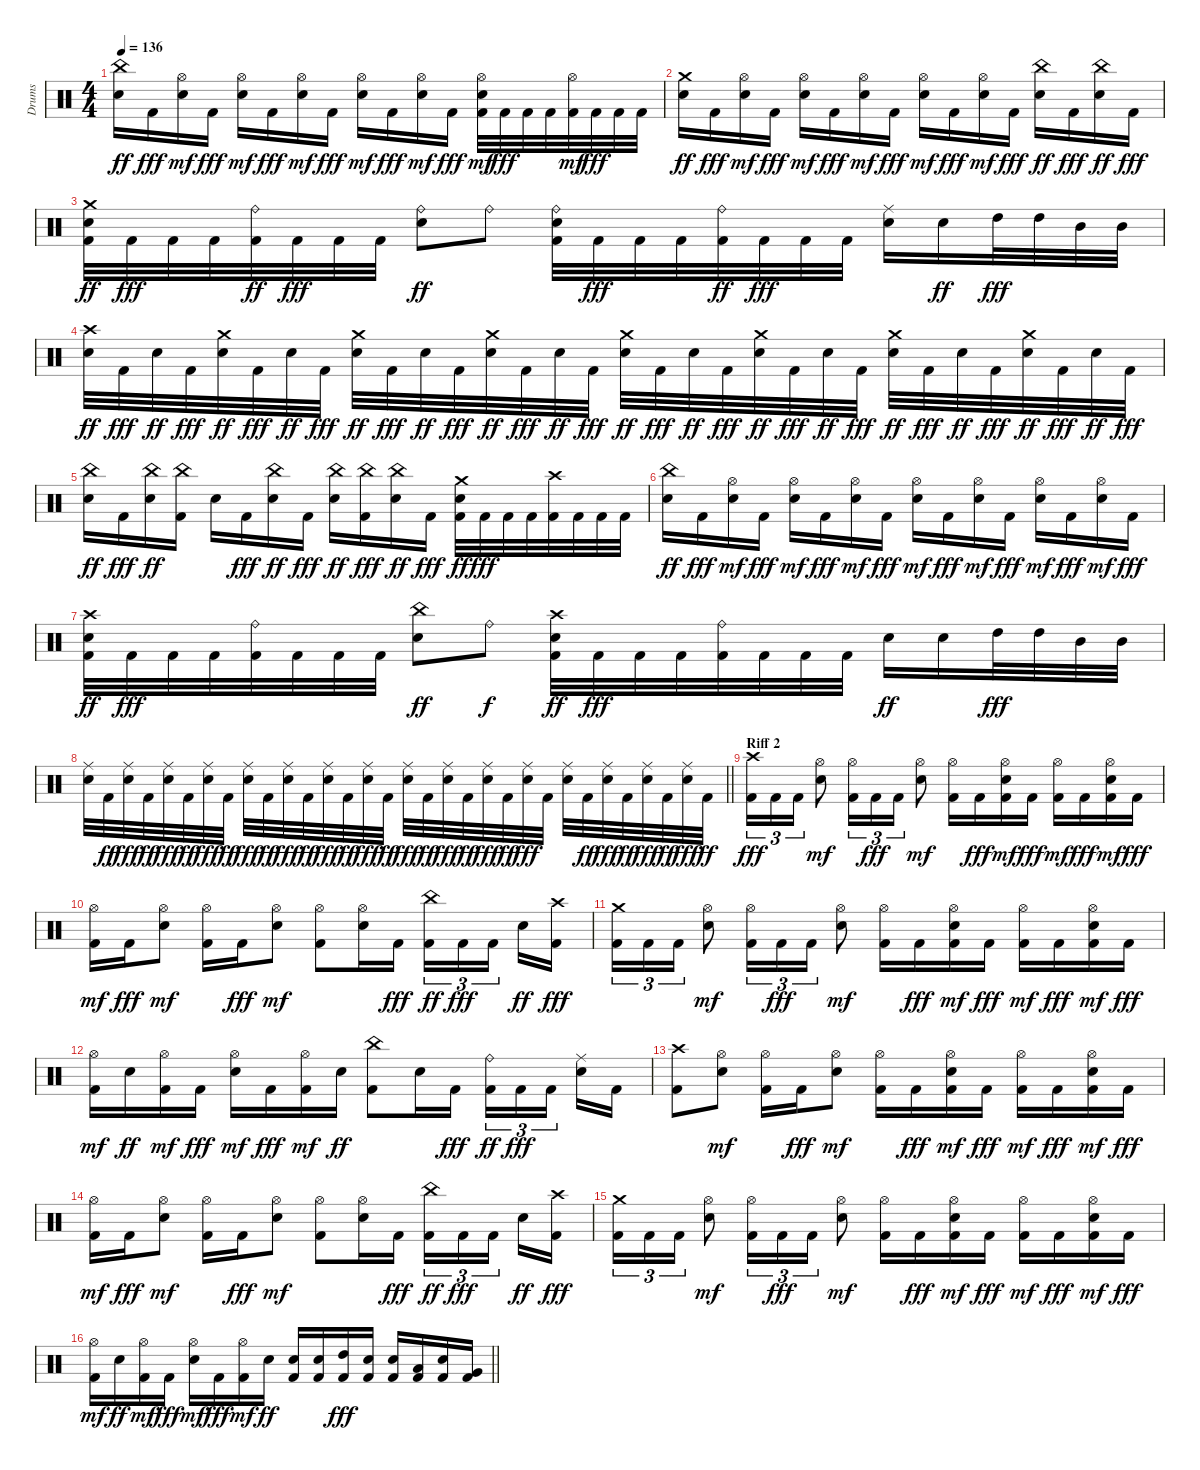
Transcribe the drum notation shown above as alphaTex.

\track ("Drums" "Drums") {instrument percussion}
\staff {score}
\articulation defaults
\ts (4 4)
\tempo 136
\clef neutral
\ks c
("Snare (hit) 2" "China (hit)").16{dy ff} "Kick (hit) 2".16{dy fff} ("Snare (hit) 2" "Hi-Hat (open)").16{dy mf} "Kick (hit) 2".16{dy fff} ("Snare (hit) 2" "Hi-Hat (open)").16{dy mf} "Kick (hit) 2".16{dy fff} ("Snare (hit) 2" "Hi-Hat (open)").16{dy mf} "Kick (hit) 2".16{dy fff} ("Snare (hit) 2" "Hi-Hat (open)").16{dy mf} "Kick (hit) 2".16{dy fff} ("Snare (hit) 2" "Hi-Hat (open)").16{dy mf} "Kick (hit) 2".16{dy fff} ("Kick (hit) 2" "Snare (hit) 2" "Hi-Hat (open)").32{dy mf} "Kick (hit) 2".32{dy fff} "Kick (hit) 2".32 "Kick (hit) 2".32 ("Kick (hit) 2" "Hi-Hat (open)").32{dy mf} "Kick (hit) 2".32{dy fff} "Kick (hit) 2".32 "Kick (hit) 2".32 |
("Snare (hit) 2" "Crash medium (hit)").16{dy ff} "Kick (hit) 2".16{dy fff} ("Snare (hit) 2" "Hi-Hat (open)").16{dy mf} "Kick (hit) 2".16{dy fff} ("Snare (hit) 2" "Hi-Hat (open)").16{dy mf} "Kick (hit) 2".16{dy fff} ("Snare (hit) 2" "Hi-Hat (open)").16{dy mf} "Kick (hit) 2".16{dy fff} ("Snare (hit) 2" "Hi-Hat (open)").16{dy mf} "Kick (hit) 2".16{dy fff} ("Snare (hit) 2" "Hi-Hat (open)").16{dy mf} "Kick (hit) 2".16{dy fff} ("Snare (hit) 2" "China (hit)").16{dy ff} "Kick (hit) 2".16{dy fff} ("Snare (hit) 2" "China (hit)").16{dy ff} "Kick (hit) 2".16{dy fff} |
("Kick (hit) 2" "Snare (hit) 2" "Crash medium (hit)").32{dy ff} "Kick (hit) 2".32{dy fff} "Kick (hit) 2".32 "Kick (hit) 2".32 ("Kick (hit) 2" "Ride (bell)").32{dy ff} "Kick (hit) 2".32{dy fff} "Kick (hit) 2".32 "Kick (hit) 2".32 ("Snare (hit) 2" "Ride (bell)").8{dy ff} "Ride (bell)".8 ("Kick (hit) 2" "Snare (hit) 2" "Ride (bell)").32 "Kick (hit) 2".32{dy fff} "Kick (hit) 2".32 "Kick (hit) 2".32 ("Kick (hit) 2" "Ride (bell)").32{dy ff} "Kick (hit) 2".32{dy fff} "Kick (hit) 2".32 "Kick (hit) 2".32 ("Snare (hit) 2" "Ride (middle)").16 "Snare (hit) 2".16{dy ff} "High Tom (hit)".32{dy fff} "High Tom (hit)".32 "Mid Tom (hit)".32 "Mid Tom (hit)".32 |
("Snare (hit) 2" "Crash high (hit)").32{dy ff} "Kick (hit) 2".32{dy fff} "Snare (hit) 2".32{dy ff} "Kick (hit) 2".32{dy fff} ("Snare (hit) 2" "Crash medium (hit)").32{dy ff} "Kick (hit) 2".32{dy fff} "Snare (hit) 2".32{dy ff} "Kick (hit) 2".32{dy fff} ("Snare (hit) 2" "Crash medium (hit)").32{dy ff} "Kick (hit) 2".32{dy fff} "Snare (hit) 2".32{dy ff} "Kick (hit) 2".32{dy fff} ("Snare (hit) 2" "Crash medium (hit)").32{dy ff} "Kick (hit) 2".32{dy fff} "Snare (hit) 2".32{dy ff} "Kick (hit) 2".32{dy fff} ("Snare (hit) 2" "Crash medium (hit)").32{dy ff} "Kick (hit) 2".32{dy fff} "Snare (hit) 2".32{dy ff} "Kick (hit) 2".32{dy fff} ("Snare (hit) 2" "Crash medium (hit)").32{dy ff} "Kick (hit) 2".32{dy fff} "Snare (hit) 2".32{dy ff} "Kick (hit) 2".32{dy fff} ("Snare (hit) 2" "Crash medium (hit)").32{dy ff} "Kick (hit) 2".32{dy fff} "Snare (hit) 2".32{dy ff} "Kick (hit) 2".32{dy fff} ("Snare (hit) 2" "Crash medium (hit)").32{dy ff} "Kick (hit) 2".32{dy fff} "Snare (hit) 2".32{dy ff} "Kick (hit) 2".32{dy fff} |
("Snare (hit) 2" "China (hit)").16{dy ff} "Kick (hit) 2".16{dy fff} ("Snare (hit) 2" "China (hit)").16{dy ff} ("Kick (hit) 2" "China (hit)").16 "Snare (hit) 2".16 "Kick (hit) 2".16{dy fff} ("Snare (hit) 2" "China (hit)").16{dy ff} "Kick (hit) 2".16{dy fff} ("Snare (hit) 2" "China (hit)").16{dy ff} ("Kick (hit) 2" "China (hit)").16{dy fff} ("Snare (hit) 2" "China (hit)").16{dy ff} "Kick (hit) 2".16{dy fff} ("Kick (hit) 2" "Snare (hit) 2" "Crash medium (hit)").32{dy ff} "Kick (hit) 2".32{dy fff} "Kick (hit) 2".32 "Kick (hit) 2".32 ("Kick (hit) 2" "Crash high (hit)").32 "Kick (hit) 2".32 "Kick (hit) 2".32 "Kick (hit) 2".32 |
("Snare (hit) 2" "China (hit)").16{dy ff} "Kick (hit) 2".16{dy fff} ("Snare (hit) 2" "Hi-Hat (open)").16{dy mf} "Kick (hit) 2".16{dy fff} ("Snare (hit) 2" "Hi-Hat (open)").16{dy mf} "Kick (hit) 2".16{dy fff} ("Snare (hit) 2" "Hi-Hat (open)").16{dy mf} "Kick (hit) 2".16{dy fff} ("Snare (hit) 2" "Hi-Hat (open)").16{dy mf} "Kick (hit) 2".16{dy fff} ("Snare (hit) 2" "Hi-Hat (open)").16{dy mf} "Kick (hit) 2".16{dy fff} ("Snare (hit) 2" "Hi-Hat (open)").16{dy mf} "Kick (hit) 2".16{dy fff} ("Snare (hit) 2" "Hi-Hat (open)").16{dy mf} "Kick (hit) 2".16{dy fff} |
("Kick (hit) 2" "Snare (hit) 2" "Crash high (hit)").32{dy ff} "Kick (hit) 2".32{dy fff} "Kick (hit) 2".32 "Kick (hit) 2".32 ("Kick (hit) 2" "Ride (bell)").32 "Kick (hit) 2".32 "Kick (hit) 2".32 "Kick (hit) 2".32 ("Snare (hit) 2" "China (hit)").8{dy ff} "Ride (bell)".8{dy f} ("Kick (hit) 2" "Snare (hit) 2" "Crash high (hit)").32{dy ff} "Kick (hit) 2".32{dy fff} "Kick (hit) 2".32 "Kick (hit) 2".32 ("Kick (hit) 2" "Ride (bell)").32 "Kick (hit) 2".32 "Kick (hit) 2".32 "Kick (hit) 2".32 "Snare (hit) 2".16{dy ff} "Snare (hit) 2".16 "High Tom (hit)".32{dy fff} "High Tom (hit)".32 "Mid Tom (hit)".32 "Mid Tom (hit)".32 |
\barLineRight lightlight
("Snare (hit) 2" "Ride (middle)").32 "Kick (hit) 2".32{dy ff} ("Snare (hit) 2" "Ride (middle)").32{dy fff} "Kick (hit) 2".32{dy ff} ("Snare (hit) 2" "Ride (middle)").32{dy fff} "Kick (hit) 2".32{dy ff} ("Snare (hit) 2" "Ride (middle)").32{dy fff} "Kick (hit) 2".32{dy ff} ("Snare (hit) 2" "Ride (middle)").32{dy fff} "Kick (hit) 2".32{dy ff} ("Snare (hit) 2" "Ride (middle)").32{dy fff} "Kick (hit) 2".32{dy ff} ("Snare (hit) 2" "Ride (middle)").32{dy fff} "Kick (hit) 2".32{dy ff} ("Snare (hit) 2" "Ride (middle)").32{dy fff} "Kick (hit) 2".32{dy ff} ("Snare (hit) 2" "Ride (middle)").32{dy fff} "Kick (hit) 2".32{dy ff} ("Snare (hit) 2" "Ride (middle)").32{dy fff} "Kick (hit) 2".32{dy ff} ("Snare (hit) 2" "Ride (middle)").32{dy fff} "Kick (hit) 2".32{dy ff} ("Snare (hit) 2" "Ride (middle)").32{dy fff} "Kick (hit) 2".32 ("Snare (hit) 2" "Ride (middle)").32 "Kick (hit) 2".32{dy ff} ("Snare (hit) 2" "Ride (middle)").32{dy fff} "Kick (hit) 2".32{dy ff} ("Snare (hit) 2" "Ride (middle)").32{dy fff} "Kick (hit) 2".32{dy ff} ("Snare (hit) 2" "Ride (middle)").32{dy fff} "Kick (hit) 2".32{dy ff} |
\section ("" "Riff 2")
("Kick (hit) 2" "Crash high (hit)").16{tu (3 2) dy fff} "Kick (hit) 2".16{tu (3 2)} "Kick (hit) 2".16{tu (3 2)} ("Snare (hit) 2" "Hi-Hat (open)").8{dy mf} ("Kick (hit) 2" "Hi-Hat (open)").16{tu (3 2)} "Kick (hit) 2".16{tu (3 2) dy fff} "Kick (hit) 2".16{tu (3 2)} ("Snare (hit) 2" "Hi-Hat (open)").8{dy mf} ("Kick (hit) 2" "Hi-Hat (open)").16 "Kick (hit) 2".16{dy fff} ("Kick (hit) 2" "Snare (hit) 2" "Hi-Hat (open)").16{dy mf} "Kick (hit) 2".16{dy fff} ("Kick (hit) 2" "Hi-Hat (open)").16{dy mf} "Kick (hit) 2".16{dy fff} ("Kick (hit) 2" "Snare (hit) 2" "Hi-Hat (open)").16{dy mf} "Kick (hit) 2".16{dy fff} |
("Kick (hit) 2" "Hi-Hat (open)").16{dy mf} "Kick (hit) 2".16{dy fff} ("Snare (hit) 2" "Hi-Hat (open)").8{dy mf} ("Kick (hit) 2" "Hi-Hat (open)").16 "Kick (hit) 2".16{dy fff} ("Snare (hit) 2" "Hi-Hat (open)").8{dy mf} ("Kick (hit) 2" "Hi-Hat (open)").8 ("Snare (hit) 2" "Hi-Hat (open)").16 "Kick (hit) 2".16{dy fff} ("Kick (hit) 2" "China (hit)").16{tu (3 2) dy ff} "Kick (hit) 2".16{tu (3 2) dy fff} "Kick (hit) 2".16{tu (3 2) beam splitsecondary} "Snare (hit) 2".16{dy ff} ("Kick (hit) 2" "Crash high (hit)").16{dy fff} |
("Kick (hit) 2" "Crash medium (hit)").16{tu (3 2)} "Kick (hit) 2".16{tu (3 2)} "Kick (hit) 2".16{tu (3 2)} ("Snare (hit) 2" "Hi-Hat (open)").8{dy mf} ("Kick (hit) 2" "Hi-Hat (open)").16{tu (3 2)} "Kick (hit) 2".16{tu (3 2) dy fff} "Kick (hit) 2".16{tu (3 2)} ("Snare (hit) 2" "Hi-Hat (open)").8{dy mf} ("Kick (hit) 2" "Hi-Hat (open)").16 "Kick (hit) 2".16{dy fff} ("Kick (hit) 2" "Snare (hit) 2" "Hi-Hat (open)").16{dy mf} "Kick (hit) 2".16{dy fff} ("Kick (hit) 2" "Hi-Hat (open)").16{dy mf} "Kick (hit) 2".16{dy fff} ("Kick (hit) 2" "Snare (hit) 2" "Hi-Hat (open)").16{dy mf} "Kick (hit) 2".16{dy fff} |
("Kick (hit) 2" "Hi-Hat (open)").16{dy mf} "Snare (hit) 2".16{dy ff} ("Kick (hit) 2" "Hi-Hat (open)").16{dy mf} "Kick (hit) 2".16{dy fff} ("Snare (hit) 2" "Hi-Hat (open)").16{dy mf} "Kick (hit) 2".16{dy fff} ("Kick (hit) 2" "Hi-Hat (open)").16{dy mf} "Snare (hit) 2".16{dy ff} ("Kick (hit) 2" "China (hit)").8 "Snare (hit) 2".16 "Kick (hit) 2".16{dy fff} ("Kick (hit) 2" "Ride (bell)").16{tu (3 2) dy ff} "Kick (hit) 2".16{tu (3 2) dy fff} "Kick (hit) 2".16{tu (3 2) beam splitsecondary} ("Snare (hit) 2" "Ride (middle)").16 "Kick (hit) 2".16 |
("Kick (hit) 2" "Crash high (hit)").8 ("Snare (hit) 2" "Hi-Hat (open)").8{dy mf} ("Kick (hit) 2" "Hi-Hat (open)").16 "Kick (hit) 2".16{dy fff} ("Snare (hit) 2" "Hi-Hat (open)").8{dy mf} ("Kick (hit) 2" "Hi-Hat (open)").16 "Kick (hit) 2".16{dy fff} ("Kick (hit) 2" "Snare (hit) 2" "Hi-Hat (open)").16{dy mf} "Kick (hit) 2".16{dy fff} ("Kick (hit) 2" "Hi-Hat (open)").16{dy mf} "Kick (hit) 2".16{dy fff} ("Kick (hit) 2" "Snare (hit) 2" "Hi-Hat (open)").16{dy mf} "Kick (hit) 2".16{dy fff} |
("Kick (hit) 2" "Hi-Hat (open)").16{dy mf} "Kick (hit) 2".16{dy fff} ("Snare (hit) 2" "Hi-Hat (open)").8{dy mf} ("Kick (hit) 2" "Hi-Hat (open)").16 "Kick (hit) 2".16{dy fff} ("Snare (hit) 2" "Hi-Hat (open)").8{dy mf} ("Kick (hit) 2" "Hi-Hat (open)").8 ("Snare (hit) 2" "Hi-Hat (open)").16 "Kick (hit) 2".16{dy fff} ("Kick (hit) 2" "China (hit)").16{tu (3 2) dy ff} "Kick (hit) 2".16{tu (3 2) dy fff} "Kick (hit) 2".16{tu (3 2) beam splitsecondary} "Snare (hit) 2".16{dy ff} ("Kick (hit) 2" "Crash high (hit)").16{dy fff} |
("Kick (hit) 2" "Crash medium (hit)").16{tu (3 2)} "Kick (hit) 2".16{tu (3 2)} "Kick (hit) 2".16{tu (3 2)} ("Snare (hit) 2" "Hi-Hat (open)").8{dy mf} ("Kick (hit) 2" "Hi-Hat (open)").16{tu (3 2)} "Kick (hit) 2".16{tu (3 2) dy fff} "Kick (hit) 2".16{tu (3 2)} ("Snare (hit) 2" "Hi-Hat (open)").8{dy mf} ("Kick (hit) 2" "Hi-Hat (open)").16 "Kick (hit) 2".16{dy fff} ("Kick (hit) 2" "Snare (hit) 2" "Hi-Hat (open)").16{dy mf} "Kick (hit) 2".16{dy fff} ("Kick (hit) 2" "Hi-Hat (open)").16{dy mf} "Kick (hit) 2".16{dy fff} ("Kick (hit) 2" "Snare (hit) 2" "Hi-Hat (open)").16{dy mf} "Kick (hit) 2".16{dy fff} |
\barLineRight lightlight
("Kick (hit) 2" "Hi-Hat (open)").16{dy mf} "Snare (hit) 2".16{dy ff} ("Kick (hit) 2" "Hi-Hat (open)").16{dy mf} "Kick (hit) 2".16{dy fff} ("Snare (hit) 2" "Hi-Hat (open)").16{dy mf} "Kick (hit) 2".16{dy fff} ("Kick (hit) 2" "Hi-Hat (open)").16{dy mf} "Snare (hit) 2".16{dy ff} ("Kick (hit) 2" "Snare (hit) 2").16 ("Kick (hit) 2" "Snare (hit) 2").16 ("Kick (hit) 2" "High Tom (hit)").16{dy fff} ("Kick (hit) 2" "Snare (hit) 2").16 ("Kick (hit) 2" "Snare (hit) 2").16 ("Kick (hit) 2" "Low Tom (hit)").16 ("Kick (hit) 2" "Snare (hit) 2").16 ("Kick (hit) 2" "Very Low Tom (hit)").16
